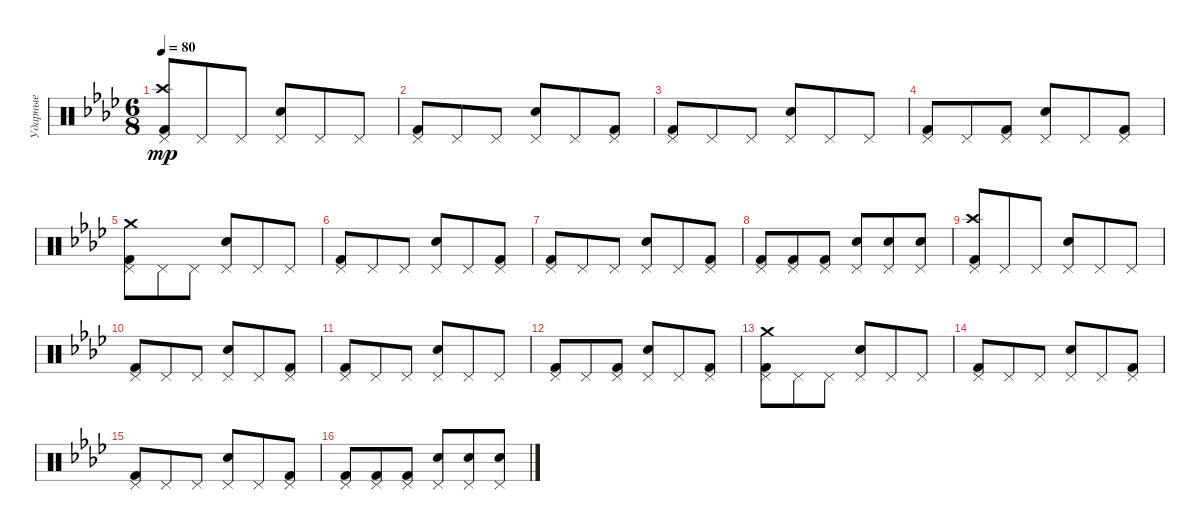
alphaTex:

\track ("Ударные" "Ударные") {instrument percussion}
\staff {score}
\articulation defaults
\ts (6 8)
\tempo 80
\clef neutral
\ks fminor
("Pedal Hi-Hat (hit)" "Crash high (hit)" "Kick (hit) 2").8{dy mp} "Pedal Hi-Hat (hit)".8 "Pedal Hi-Hat (hit)".8 ("Pedal Hi-Hat (hit)" "Electric Snare (hit)").8 "Pedal Hi-Hat (hit)".8 "Pedal Hi-Hat (hit)".8 |
("Pedal Hi-Hat (hit)" "Kick (hit) 2").8 "Pedal Hi-Hat (hit)".8 "Pedal Hi-Hat (hit)".8 ("Pedal Hi-Hat (hit)" "Electric Snare (hit)").8 "Pedal Hi-Hat (hit)".8 ("Pedal Hi-Hat (hit)" "Kick (hit) 2").8 |
("Pedal Hi-Hat (hit)" "Kick (hit) 2").8 "Pedal Hi-Hat (hit)".8 "Pedal Hi-Hat (hit)".8 ("Pedal Hi-Hat (hit)" "Electric Snare (hit)").8 "Pedal Hi-Hat (hit)".8 "Pedal Hi-Hat (hit)".8 |
("Pedal Hi-Hat (hit)" "Kick (hit) 2").8 "Pedal Hi-Hat (hit)".8 ("Pedal Hi-Hat (hit)" "Kick (hit) 2").8 ("Pedal Hi-Hat (hit)" "Electric Snare (hit)").8 "Pedal Hi-Hat (hit)".8 ("Pedal Hi-Hat (hit)" "Kick (hit) 2").8 |
("Pedal Hi-Hat (hit)" "Crash medium (hit)" "Kick (hit) 2").8 "Pedal Hi-Hat (hit)".8 "Pedal Hi-Hat (hit)".8 ("Pedal Hi-Hat (hit)" "Electric Snare (hit)").8 "Pedal Hi-Hat (hit)".8 "Pedal Hi-Hat (hit)".8 |
("Pedal Hi-Hat (hit)" "Kick (hit) 2").8 "Pedal Hi-Hat (hit)".8 "Pedal Hi-Hat (hit)".8 ("Pedal Hi-Hat (hit)" "Electric Snare (hit)").8 "Pedal Hi-Hat (hit)".8 ("Pedal Hi-Hat (hit)" "Kick (hit) 2").8 |
("Pedal Hi-Hat (hit)" "Kick (hit) 2").8 "Pedal Hi-Hat (hit)".8 "Pedal Hi-Hat (hit)".8 ("Pedal Hi-Hat (hit)" "Electric Snare (hit)").8 "Pedal Hi-Hat (hit)".8 ("Pedal Hi-Hat (hit)" "Kick (hit) 2").8 |
("Pedal Hi-Hat (hit)" "Kick (hit) 2").8 ("Pedal Hi-Hat (hit)" "Kick (hit) 2").8 ("Pedal Hi-Hat (hit)" "Kick (hit) 2").8 ("Pedal Hi-Hat (hit)" "Electric Snare (hit)").8 ("Pedal Hi-Hat (hit)" "Electric Snare (hit)").8 ("Pedal Hi-Hat (hit)" "Electric Snare (hit)").8 |
("Pedal Hi-Hat (hit)" "Crash high (hit)" "Kick (hit) 2").8 "Pedal Hi-Hat (hit)".8 "Pedal Hi-Hat (hit)".8 ("Pedal Hi-Hat (hit)" "Electric Snare (hit)").8 "Pedal Hi-Hat (hit)".8 "Pedal Hi-Hat (hit)".8 |
("Pedal Hi-Hat (hit)" "Kick (hit) 2").8 "Pedal Hi-Hat (hit)".8 "Pedal Hi-Hat (hit)".8 ("Pedal Hi-Hat (hit)" "Electric Snare (hit)").8 "Pedal Hi-Hat (hit)".8 ("Pedal Hi-Hat (hit)" "Kick (hit) 2").8 |
("Pedal Hi-Hat (hit)" "Kick (hit) 2").8 "Pedal Hi-Hat (hit)".8 "Pedal Hi-Hat (hit)".8 ("Pedal Hi-Hat (hit)" "Electric Snare (hit)").8 "Pedal Hi-Hat (hit)".8 "Pedal Hi-Hat (hit)".8 |
("Pedal Hi-Hat (hit)" "Kick (hit) 2").8 "Pedal Hi-Hat (hit)".8 ("Pedal Hi-Hat (hit)" "Kick (hit) 2").8 ("Pedal Hi-Hat (hit)" "Electric Snare (hit)").8 "Pedal Hi-Hat (hit)".8 ("Pedal Hi-Hat (hit)" "Kick (hit) 2").8 |
("Pedal Hi-Hat (hit)" "Crash medium (hit)" "Kick (hit) 2").8 "Pedal Hi-Hat (hit)".8 "Pedal Hi-Hat (hit)".8 ("Pedal Hi-Hat (hit)" "Electric Snare (hit)").8 "Pedal Hi-Hat (hit)".8 "Pedal Hi-Hat (hit)".8 |
("Pedal Hi-Hat (hit)" "Kick (hit) 2").8 "Pedal Hi-Hat (hit)".8 "Pedal Hi-Hat (hit)".8 ("Pedal Hi-Hat (hit)" "Electric Snare (hit)").8 "Pedal Hi-Hat (hit)".8 ("Pedal Hi-Hat (hit)" "Kick (hit) 2").8 |
("Pedal Hi-Hat (hit)" "Kick (hit) 2").8 "Pedal Hi-Hat (hit)".8 "Pedal Hi-Hat (hit)".8 ("Pedal Hi-Hat (hit)" "Electric Snare (hit)").8 "Pedal Hi-Hat (hit)".8 ("Pedal Hi-Hat (hit)" "Kick (hit) 2").8 |
("Pedal Hi-Hat (hit)" "Kick (hit) 2").8 ("Pedal Hi-Hat (hit)" "Kick (hit) 2").8 ("Pedal Hi-Hat (hit)" "Kick (hit) 2").8 ("Pedal Hi-Hat (hit)" "Electric Snare (hit)").8 ("Pedal Hi-Hat (hit)" "Electric Snare (hit)").8 ("Pedal Hi-Hat (hit)" "Electric Snare (hit)").8
